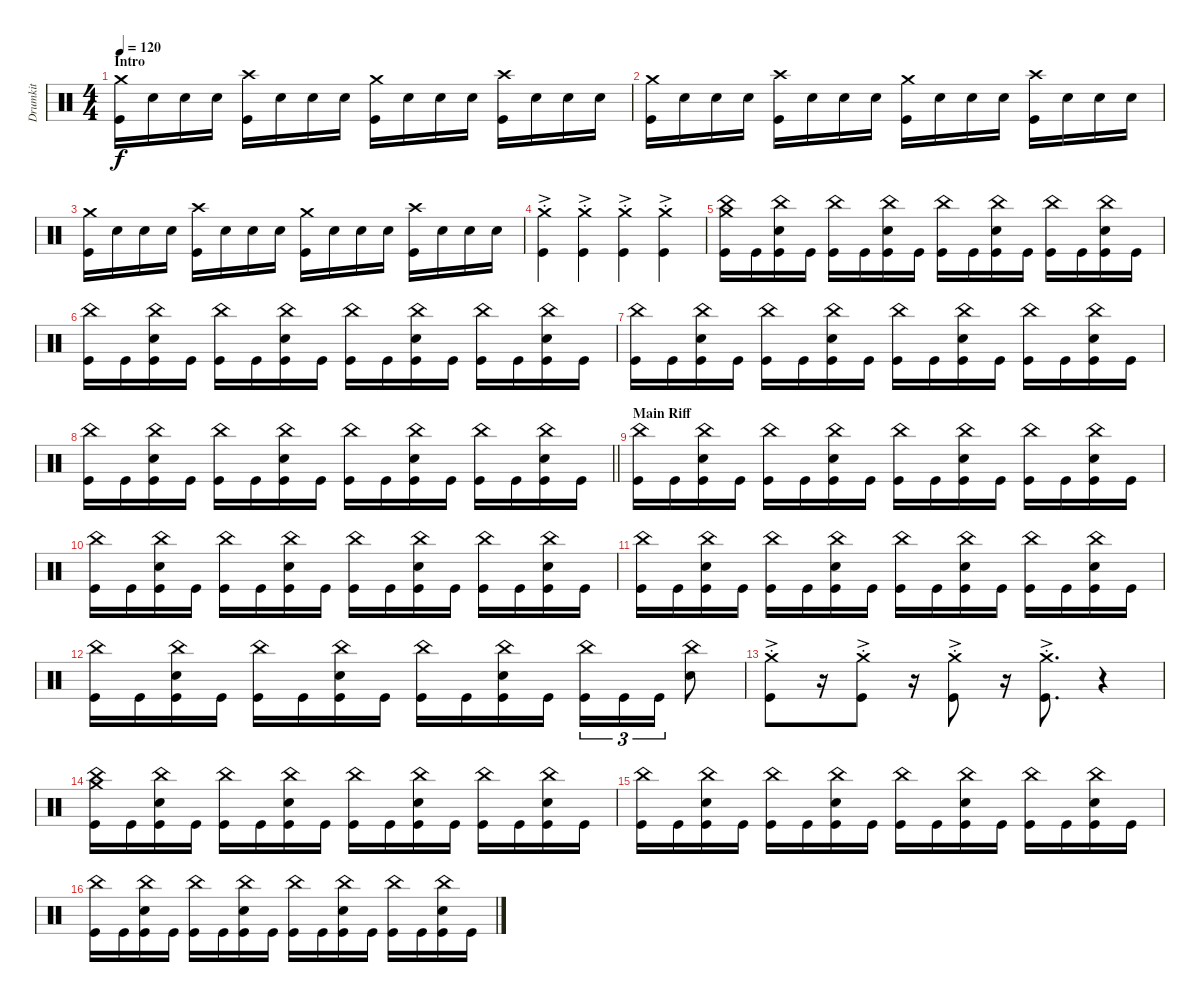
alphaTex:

\track ("Drumkit" "Drumkit") {instrument percussion}
\staff {score}
\articulation defaults
\ts (4 4)
\section ("" "Intro")
\tempo 120
\clef neutral
\ks c
("Crash medium (hit)" "Kick (hit)").16{dy f} "Snare (hit) 2".16 "Snare (hit) 2".16 "Snare (hit) 2".16 ("Kick (hit)" "Crash high (hit)").16 "Snare (hit) 2".16 "Snare (hit) 2".16 "Snare (hit) 2".16 ("Crash medium (hit)" "Kick (hit)").16 "Snare (hit) 2".16 "Snare (hit) 2".16 "Snare (hit) 2".16 ("Kick (hit)" "Crash high (hit)").16 "Snare (hit) 2".16 "Snare (hit) 2".16 "Snare (hit) 2".16 |
("Crash medium (hit)" "Kick (hit)").16 "Snare (hit) 2".16 "Snare (hit) 2".16 "Snare (hit) 2".16 ("Kick (hit)" "Crash high (hit)").16 "Snare (hit) 2".16 "Snare (hit) 2".16 "Snare (hit) 2".16 ("Crash medium (hit)" "Kick (hit)").16 "Snare (hit) 2".16 "Snare (hit) 2".16 "Snare (hit) 2".16 ("Kick (hit)" "Crash high (hit)").16 "Snare (hit) 2".16 "Snare (hit) 2".16 "Snare (hit) 2".16 |
("Crash medium (hit)" "Kick (hit)").16 "Snare (hit) 2".16 "Snare (hit) 2".16 "Snare (hit) 2".16 ("Kick (hit)" "Crash high (hit)").16 "Snare (hit) 2".16 "Snare (hit) 2".16 "Snare (hit) 2".16 ("Crash medium (hit)" "Kick (hit)").16 "Snare (hit) 2".16 "Snare (hit) 2".16 "Snare (hit) 2".16 ("Kick (hit)" "Crash high (hit)").16 "Snare (hit) 2".16 "Snare (hit) 2".16 "Snare (hit) 2".16 |
("Kick (hit)" "Crash medium (hit)"{ac st}).4 ("Kick (hit)" "Crash medium (hit)"{ac st}).4 ("Kick (hit)" "Crash medium (hit)"{ac st}).4 ("Kick (hit)" "Crash medium (hit)"{ac st}).4 |
("China (hit)" "Kick (hit)" "Crash medium (hit)").16 "Kick (hit)".16 ("Kick (hit)" "Snare (hit) 2" "China (hit)").16 "Kick (hit)".16 ("Kick (hit)" "China (hit)").16 "Kick (hit)".16 ("Kick (hit)" "Snare (hit) 2" "China (hit)").16 "Kick (hit)".16 ("Kick (hit)" "China (hit)").16 "Kick (hit)".16 ("Kick (hit)" "Snare (hit) 2" "China (hit)").16 "Kick (hit)".16 ("Kick (hit)" "China (hit)").16 "Kick (hit)".16 ("Kick (hit)" "Snare (hit) 2" "China (hit)").16 "Kick (hit)".16 |
("China (hit)" "Kick (hit)").16 "Kick (hit)".16 ("Kick (hit)" "Snare (hit) 2" "China (hit)").16 "Kick (hit)".16 ("Kick (hit)" "China (hit)").16 "Kick (hit)".16 ("Kick (hit)" "Snare (hit) 2" "China (hit)").16 "Kick (hit)".16 ("Kick (hit)" "China (hit)").16 "Kick (hit)".16 ("Kick (hit)" "Snare (hit) 2" "China (hit)").16 "Kick (hit)".16 ("Kick (hit)" "China (hit)").16 "Kick (hit)".16 ("Kick (hit)" "Snare (hit) 2" "China (hit)").16 "Kick (hit)".16 |
("China (hit)" "Kick (hit)").16 "Kick (hit)".16 ("Kick (hit)" "Snare (hit) 2" "China (hit)").16 "Kick (hit)".16 ("Kick (hit)" "China (hit)").16 "Kick (hit)".16 ("Kick (hit)" "Snare (hit) 2" "China (hit)").16 "Kick (hit)".16 ("Kick (hit)" "China (hit)").16 "Kick (hit)".16 ("Kick (hit)" "Snare (hit) 2" "China (hit)").16 "Kick (hit)".16 ("Kick (hit)" "China (hit)").16 "Kick (hit)".16 ("Kick (hit)" "Snare (hit) 2" "China (hit)").16 "Kick (hit)".16 |
\barLineRight lightlight
("China (hit)" "Kick (hit)").16 "Kick (hit)".16 ("Kick (hit)" "Snare (hit) 2" "China (hit)").16 "Kick (hit)".16 ("Kick (hit)" "China (hit)").16 "Kick (hit)".16 ("Kick (hit)" "Snare (hit) 2" "China (hit)").16 "Kick (hit)".16 ("Kick (hit)" "China (hit)").16 "Kick (hit)".16 ("Kick (hit)" "Snare (hit) 2" "China (hit)").16 "Kick (hit)".16 ("Kick (hit)" "China (hit)").16 "Kick (hit)".16 ("Kick (hit)" "Snare (hit) 2" "China (hit)").16 "Kick (hit)".16 |
\section ("" "Main Riff")
("China (hit)" "Kick (hit)").16 "Kick (hit)".16 ("Kick (hit)" "Snare (hit) 2" "China (hit)").16 "Kick (hit)".16 ("Kick (hit)" "China (hit)").16 "Kick (hit)".16 ("Kick (hit)" "Snare (hit) 2" "China (hit)").16 "Kick (hit)".16 ("Kick (hit)" "China (hit)").16 "Kick (hit)".16 ("Kick (hit)" "Snare (hit) 2" "China (hit)").16 "Kick (hit)".16 ("Kick (hit)" "China (hit)").16 "Kick (hit)".16 ("Kick (hit)" "Snare (hit) 2" "China (hit)").16 "Kick (hit)".16 |
("China (hit)" "Kick (hit)").16 "Kick (hit)".16 ("Kick (hit)" "Snare (hit) 2" "China (hit)").16 "Kick (hit)".16 ("Kick (hit)" "China (hit)").16 "Kick (hit)".16 ("Kick (hit)" "Snare (hit) 2" "China (hit)").16 "Kick (hit)".16 ("Kick (hit)" "China (hit)").16 "Kick (hit)".16 ("Kick (hit)" "Snare (hit) 2" "China (hit)").16 "Kick (hit)".16 ("Kick (hit)" "China (hit)").16 "Kick (hit)".16 ("Kick (hit)" "Snare (hit) 2" "China (hit)").16 "Kick (hit)".16 |
("China (hit)" "Kick (hit)").16 "Kick (hit)".16 ("Kick (hit)" "Snare (hit) 2" "China (hit)").16 "Kick (hit)".16 ("Kick (hit)" "China (hit)").16 "Kick (hit)".16 ("Kick (hit)" "Snare (hit) 2" "China (hit)").16 "Kick (hit)".16 ("Kick (hit)" "China (hit)").16 "Kick (hit)".16 ("Kick (hit)" "Snare (hit) 2" "China (hit)").16 "Kick (hit)".16 ("Kick (hit)" "China (hit)").16 "Kick (hit)".16 ("Kick (hit)" "Snare (hit) 2" "China (hit)").16 "Kick (hit)".16 |
("China (hit)" "Kick (hit)").16 "Kick (hit)".16 ("Kick (hit)" "Snare (hit) 2" "China (hit)").16 "Kick (hit)".16 ("Kick (hit)" "China (hit)").16 "Kick (hit)".16 ("Kick (hit)" "Snare (hit) 2" "China (hit)").16 "Kick (hit)".16 ("Kick (hit)" "China (hit)").16 "Kick (hit)".16 ("Kick (hit)" "Snare (hit) 2" "China (hit)").16 "Kick (hit)".16 ("Kick (hit)" "China (hit)").16{tu (3 2)} "Kick (hit)".16{tu (3 2)} "Kick (hit)".16{tu (3 2)} ("Snare (hit) 2" "China (hit)").8 |
("Kick (hit)" "Crash medium (hit)"{ac st}).8 r.16 ("Kick (hit)" "Crash medium (hit)"{ac st}).8 r.16 ("Kick (hit)" "Crash medium (hit)"{ac st}).8 r.16 ("Kick (hit)" "Crash medium (hit)"{ac st}).8{d} r.4 |
("China (hit)" "Kick (hit)" "Crash medium (hit)").16 "Kick (hit)".16 ("Kick (hit)" "Snare (hit) 2" "China (hit)").16 "Kick (hit)".16 ("Kick (hit)" "China (hit)").16 "Kick (hit)".16 ("Kick (hit)" "Snare (hit) 2" "China (hit)").16 "Kick (hit)".16 ("Kick (hit)" "China (hit)").16 "Kick (hit)".16 ("Kick (hit)" "Snare (hit) 2" "China (hit)").16 "Kick (hit)".16 ("Kick (hit)" "China (hit)").16 "Kick (hit)".16 ("Kick (hit)" "Snare (hit) 2" "China (hit)").16 "Kick (hit)".16 |
("China (hit)" "Kick (hit)").16 "Kick (hit)".16 ("Kick (hit)" "Snare (hit) 2" "China (hit)").16 "Kick (hit)".16 ("Kick (hit)" "China (hit)").16 "Kick (hit)".16 ("Kick (hit)" "Snare (hit) 2" "China (hit)").16 "Kick (hit)".16 ("Kick (hit)" "China (hit)").16 "Kick (hit)".16 ("Kick (hit)" "Snare (hit) 2" "China (hit)").16 "Kick (hit)".16 ("Kick (hit)" "China (hit)").16 "Kick (hit)".16 ("Kick (hit)" "Snare (hit) 2" "China (hit)").16 "Kick (hit)".16 |
("China (hit)" "Kick (hit)").16 "Kick (hit)".16 ("Kick (hit)" "Snare (hit) 2" "China (hit)").16 "Kick (hit)".16 ("Kick (hit)" "China (hit)").16 "Kick (hit)".16 ("Kick (hit)" "Snare (hit) 2" "China (hit)").16 "Kick (hit)".16 ("Kick (hit)" "China (hit)").16 "Kick (hit)".16 ("Kick (hit)" "Snare (hit) 2" "China (hit)").16 "Kick (hit)".16 ("Kick (hit)" "China (hit)").16 "Kick (hit)".16 ("Kick (hit)" "Snare (hit) 2" "China (hit)").16 "Kick (hit)".16
